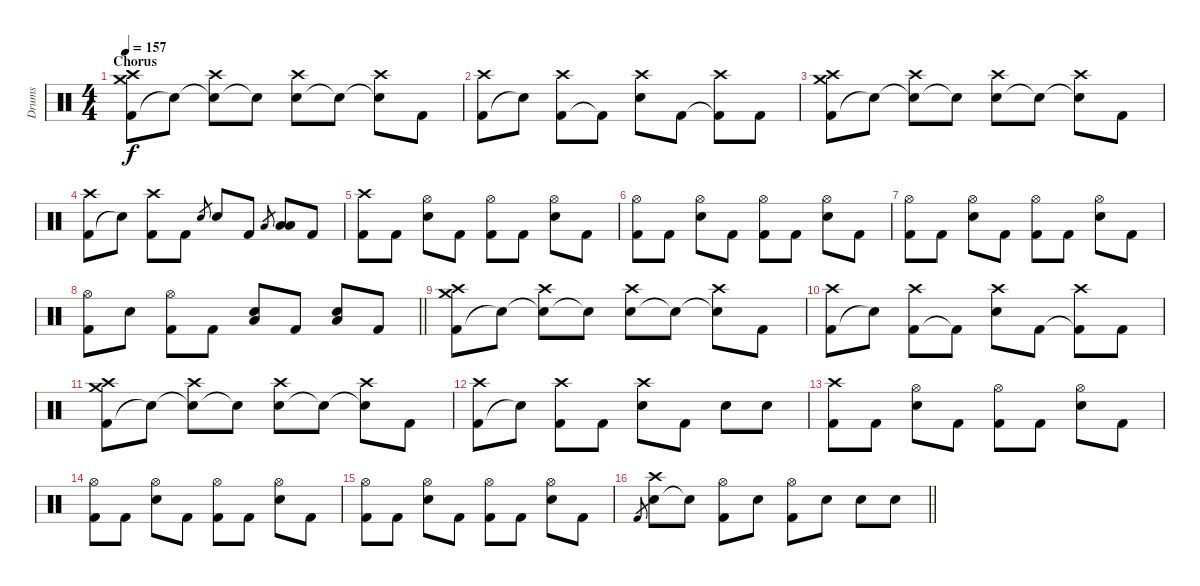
\track ("Drums" "Drums") {instrument percussion}
\staff {score}
\articulation defaults
\ts (4 4)
\section ("" "Chorus")
\tempo 157
\clef neutral
\ks c
("Kick (hit) 2" "Crash medium (hit)" "Crash high (hit)").8{dy f} "Snare (hit)"{t}.8 ("Snare (hit)"{t} "Crash high (hit)").8 "Electric Snare (hit)"{t}.8 ("Electric Snare (hit)" "Crash high (hit)").8 "Snare (hit)"{t}.8 ("Snare (hit)"{t} "Crash high (hit)").8 "Kick (hit) 2".8 |
("Kick (hit) 2" "Crash high (hit)").8 "Snare (hit)"{t}.8 ("Kick (hit) 2" "Crash high (hit)").8 "Kick (hit) 2"{t}.8 ("Electric Snare (hit)" "Crash high (hit)").8 "Kick (hit) 2".8 ("Kick (hit) 2"{t} "Crash high (hit)").8 "Kick (hit) 2".8 |
("Kick (hit) 2" "Crash medium (hit)" "Crash high (hit)").8 "Snare (hit)"{t}.8 ("Snare (hit)"{t} "Crash high (hit)").8 "Electric Snare (hit)"{t}.8 ("Electric Snare (hit)" "Crash high (hit)").8 "Snare (hit)"{t}.8 ("Snare (hit)"{t} "Crash high (hit)").8 "Kick (hit) 2".8 |
("Kick (hit) 2" "Crash high (hit)").8 "Snare (hit)"{t}.8 ("Kick (hit) 2" "Crash high (hit)").8 "Kick (hit) 2".8 "Electric Snare (hit)".8{gr} "Electric Snare (hit)".8 "Kick (hit) 2".8 "Low Tom (hit)".8{gr} ("Low Tom (hit)" "Low Floor Tom (hit)").8 "Kick (hit) 2".8 |
("Kick (hit) 2" "Crash high (hit)").8 "Kick (hit) 2".8 ("Electric Snare (hit)" "Hi-Hat (open)").8 "Kick (hit) 2".8 ("Kick (hit) 2" "Hi-Hat (open)").8 "Kick (hit) 2".8 ("Electric Snare (hit)" "Hi-Hat (open)").8 "Kick (hit) 2".8 |
("Kick (hit) 2" "Hi-Hat (open)").8 "Kick (hit) 2".8 ("Electric Snare (hit)" "Hi-Hat (open)").8 "Kick (hit) 2".8 ("Kick (hit) 2" "Hi-Hat (open)").8 "Kick (hit) 2".8 ("Electric Snare (hit)" "Hi-Hat (open)").8 "Kick (hit) 2".8 |
("Kick (hit) 2" "Hi-Hat (open)").8 "Kick (hit) 2".8 ("Electric Snare (hit)" "Hi-Hat (open)").8 "Kick (hit) 2".8 ("Kick (hit) 2" "Hi-Hat (open)").8 "Kick (hit) 2".8 ("Electric Snare (hit)" "Hi-Hat (open)").8 "Kick (hit) 2".8 |
\barLineRight lightlight
("Kick (hit) 2" "Hi-Hat (open)").8 "Electric Snare (hit)".8 ("Kick (hit) 2" "Hi-Hat (open)").8 "Kick (hit) 2".8 ("Electric Snare (hit)" "Low Floor Tom (hit)").8 "Kick (hit) 2".8 ("Electric Snare (hit)" "Low Floor Tom (hit)").8 "Kick (hit) 2".8 |
("Kick (hit) 2" "Crash medium (hit)" "Crash high (hit)").8 "Snare (hit)"{t}.8 ("Snare (hit)"{t} "Crash high (hit)").8 "Electric Snare (hit)"{t}.8 ("Electric Snare (hit)" "Crash high (hit)").8 "Snare (hit)"{t}.8 ("Snare (hit)"{t} "Crash high (hit)").8 "Kick (hit) 2".8 |
("Kick (hit) 2" "Crash high (hit)").8 "Snare (hit)"{t}.8 ("Kick (hit) 2" "Crash high (hit)").8 "Kick (hit) 2"{t}.8 ("Electric Snare (hit)" "Crash high (hit)").8 "Kick (hit) 2".8 ("Kick (hit) 2"{t} "Crash high (hit)").8 "Kick (hit) 2".8 |
("Kick (hit) 2" "Crash medium (hit)" "Crash high (hit)").8 "Snare (hit)"{t}.8 ("Snare (hit)"{t} "Crash high (hit)").8 "Electric Snare (hit)"{t}.8 ("Electric Snare (hit)" "Crash high (hit)").8 "Snare (hit)"{t}.8 ("Snare (hit)"{t} "Crash high (hit)").8 "Kick (hit) 2".8 |
("Kick (hit) 2" "Crash high (hit)").8 "Snare (hit)"{t}.8 ("Kick (hit) 2" "Crash high (hit)").8 "Kick (hit) 2".8 ("Electric Snare (hit)" "Crash high (hit)").8 "Kick (hit) 2".8 "Electric Snare (hit)".8 "Electric Snare (hit)".8 |
("Kick (hit) 2" "Crash high (hit)").8 "Kick (hit) 2".8 ("Electric Snare (hit)" "Hi-Hat (open)").8 "Kick (hit) 2".8 ("Kick (hit) 2" "Hi-Hat (open)").8 "Kick (hit) 2".8 ("Electric Snare (hit)" "Hi-Hat (open)").8 "Kick (hit) 2".8 |
("Kick (hit) 2" "Hi-Hat (open)").8 "Kick (hit) 2".8 ("Electric Snare (hit)" "Hi-Hat (open)").8 "Kick (hit) 2".8 ("Kick (hit) 2" "Hi-Hat (open)").8 "Kick (hit) 2".8 ("Electric Snare (hit)" "Hi-Hat (open)").8 "Kick (hit) 2".8 |
("Kick (hit) 2" "Hi-Hat (open)").8 "Kick (hit) 2".8 ("Electric Snare (hit)" "Hi-Hat (open)").8 "Kick (hit) 2".8 ("Kick (hit) 2" "Hi-Hat (open)").8 "Kick (hit) 2".8 ("Electric Snare (hit)" "Hi-Hat (open)").8 "Kick (hit) 2".8 |
\barLineRight lightlight "Kick (hit) 2".8{gr}
("Electric Snare (hit)" "Crash high (hit)").8 "Snare (hit)"{t}.8 ("Kick (hit) 2" "Hi-Hat (open)").8 "Electric Snare (hit)".8 ("Kick (hit) 2" "Hi-Hat (open)").8 "Electric Snare (hit)".8 "Electric Snare (hit)".8 "Electric Snare (hit)".8
